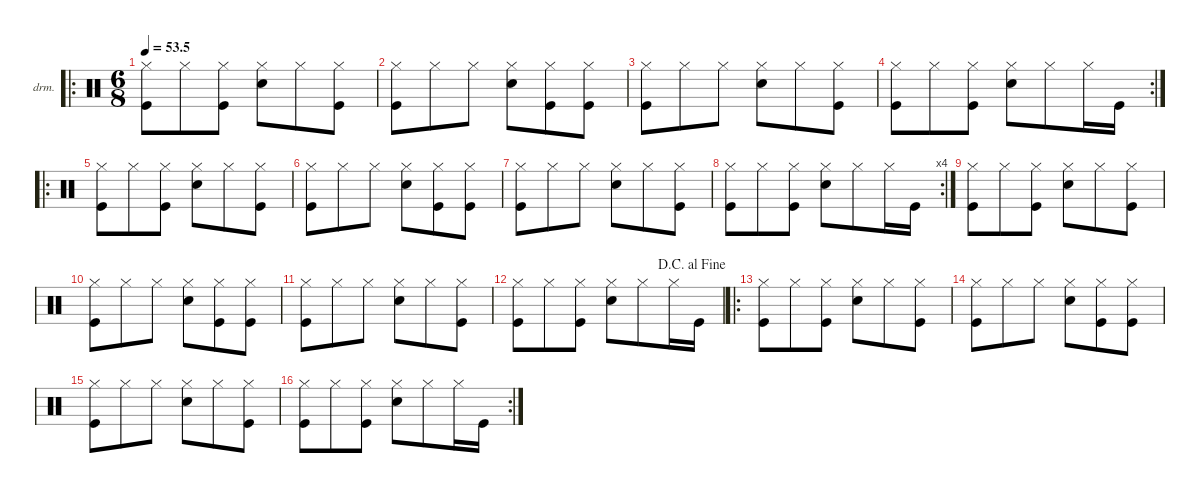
\defaultSystemsLayout 4
\hideDynamics
\bracketExtendMode nobrackets
\firstSystemTrackNameOrientation horizontal
\otherSystemsTrackNameOrientation horizontal
\track ("Drumkit" "drm.") {defaultSystemsLayout 2 instrument percussion}
\staff {score}
\articulation defaults
\ro
\ts (6 8)
\beaming (8 3 3)
\tempo
53.5
\accidentals auto
\clef neutral
\ottava regular
\simile none
\scale
1.05056
\ks c
("Hi-Hat (closed)" "Kick (hit)").8{dy mf beam Down} "Hi-Hat (closed)".8{beam Down} ("Hi-Hat (closed)" "Kick (hit)").8{beam Down} ("Hi-Hat (closed)" "Snare (hit) 2").8{beam Down} "Hi-Hat (closed)".8{beam Down} ("Hi-Hat (closed)" "Kick (hit)").8{beam Down} |
\scale
0.949439 ("Hi-Hat (closed)" "Kick (hit)").8{beam Down} "Hi-Hat (closed)".8{beam Down} "Hi-Hat (closed)".8{beam Down} ("Hi-Hat (closed)" "Snare (hit) 2").8{beam Down} ("Hi-Hat (closed)" "Kick (hit)").8{beam Down} ("Hi-Hat (closed)" "Kick (hit)").8{beam Down} |
\scale
1.00975 ("Hi-Hat (closed)" "Kick (hit)").8{beam Down} "Hi-Hat (closed)".8{beam Down} "Hi-Hat (closed)".8{beam Down} ("Hi-Hat (closed)" "Snare (hit) 2").8{beam Down} "Hi-Hat (closed)".8{beam Down} ("Hi-Hat (closed)" "Kick (hit)").8{beam Down} |
\rc 2
\scale
0.990253 ("Hi-Hat (closed)" "Kick (hit)").8{beam Down} "Hi-Hat (closed)".8{beam Down} ("Hi-Hat (closed)" "Kick (hit)").8{beam Down} ("Hi-Hat (closed)" "Snare (hit) 2").8{beam Down} "Hi-Hat (closed)".8{beam Down} "Hi-Hat (closed)".16{beam Down} "Kick (hit)".16{beam Down} |
\ro
\scale
1.03018 ("Hi-Hat (closed)" "Kick (hit)").8{beam Down} "Hi-Hat (closed)".8{beam Down} ("Hi-Hat (closed)" "Kick (hit)").8{beam Down} ("Hi-Hat (closed)" "Snare (hit) 2").8{beam Down} "Hi-Hat (closed)".8{beam Down} ("Hi-Hat (closed)" "Kick (hit)").8{beam Down} |
\scale
0.969821 ("Hi-Hat (closed)" "Kick (hit)").8{beam Down} "Hi-Hat (closed)".8{beam Down} "Hi-Hat (closed)".8{beam Down} ("Hi-Hat (closed)" "Snare (hit) 2").8{beam Down} ("Hi-Hat (closed)" "Kick (hit)").8{beam Down} ("Hi-Hat (closed)" "Kick (hit)").8{beam Down} |
\scale
1.00975 ("Hi-Hat (closed)" "Kick (hit)").8{beam Down} "Hi-Hat (closed)".8{beam Down} "Hi-Hat (closed)".8{beam Down} ("Hi-Hat (closed)" "Snare (hit) 2").8{beam Down} "Hi-Hat (closed)".8{beam Down} ("Hi-Hat (closed)" "Kick (hit)").8{beam Down} |
\rc 4
\scale
0.990253 ("Hi-Hat (closed)" "Kick (hit)").8{beam Down} "Hi-Hat (closed)".8{beam Down} ("Hi-Hat (closed)" "Kick (hit)").8{beam Down} ("Hi-Hat (closed)" "Snare (hit) 2").8{beam Down} "Hi-Hat (closed)".8{beam Down} "Hi-Hat (closed)".16{beam Down} "Kick (hit)".16{beam Down} |
\scale
1.02131 ("Hi-Hat (closed)" "Kick (hit)").8{beam Down} "Hi-Hat (closed)".8{beam Down} ("Hi-Hat (closed)" "Kick (hit)").8{beam Down} ("Hi-Hat (closed)" "Snare (hit) 2").8{beam Down} "Hi-Hat (closed)".8{beam Down} ("Hi-Hat (closed)" "Kick (hit)").8{beam Down} |
\scale
0.978695 ("Hi-Hat (closed)" "Kick (hit)").8{beam Down} "Hi-Hat (closed)".8{beam Down} "Hi-Hat (closed)".8{beam Down} ("Hi-Hat (closed)" "Snare (hit) 2").8{beam Down} ("Hi-Hat (closed)" "Kick (hit)").8{beam Down} ("Hi-Hat (closed)" "Kick (hit)").8{beam Down} |
\scale
1.02131 ("Hi-Hat (closed)" "Kick (hit)").8{beam Down} "Hi-Hat (closed)".8{beam Down} "Hi-Hat (closed)".8{beam Down} ("Hi-Hat (closed)" "Snare (hit) 2").8{beam Down} "Hi-Hat (closed)".8{beam Down} ("Hi-Hat (closed)" "Kick (hit)").8{beam Down} |
\jump dacapoalfine
\scale
0.978695 ("Hi-Hat (closed)" "Kick (hit)").8{beam Down} "Hi-Hat (closed)".8{beam Down} ("Hi-Hat (closed)" "Kick (hit)").8{beam Down} ("Hi-Hat (closed)" "Snare (hit) 2").8{beam Down} "Hi-Hat (closed)".8{beam Down} "Hi-Hat (closed)".16{beam Down} "Kick (hit)".16{beam Down} |
\ro
\scale
1.02131 ("Hi-Hat (closed)" "Kick (hit)").8{beam Down} "Hi-Hat (closed)".8{beam Down} ("Hi-Hat (closed)" "Kick (hit)").8{beam Down} ("Hi-Hat (closed)" "Snare (hit) 2").8{beam Down} "Hi-Hat (closed)".8{beam Down} ("Hi-Hat (closed)" "Kick (hit)").8{beam Down} |
\scale
0.978695 ("Hi-Hat (closed)" "Kick (hit)").8{beam Down} "Hi-Hat (closed)".8{beam Down} "Hi-Hat (closed)".8{beam Down} ("Hi-Hat (closed)" "Snare (hit) 2").8{beam Down} ("Hi-Hat (closed)" "Kick (hit)").8{beam Down} ("Hi-Hat (closed)" "Kick (hit)").8{beam Down} |
\scale
1.02131 ("Hi-Hat (closed)" "Kick (hit)").8{beam Down} "Hi-Hat (closed)".8{beam Down} "Hi-Hat (closed)".8{beam Down} ("Hi-Hat (closed)" "Snare (hit) 2").8{beam Down} "Hi-Hat (closed)".8{beam Down} ("Hi-Hat (closed)" "Kick (hit)").8{beam Down} |
\rc 2
\scale
0.978695 ("Hi-Hat (closed)" "Kick (hit)").8{beam Down} "Hi-Hat (closed)".8{beam Down} ("Hi-Hat (closed)" "Kick (hit)").8{beam Down} ("Hi-Hat (closed)" "Snare (hit) 2").8{beam Down} "Hi-Hat (closed)".8{beam Down} "Hi-Hat (closed)".16{beam Down} "Kick (hit)".16{beam Down}
